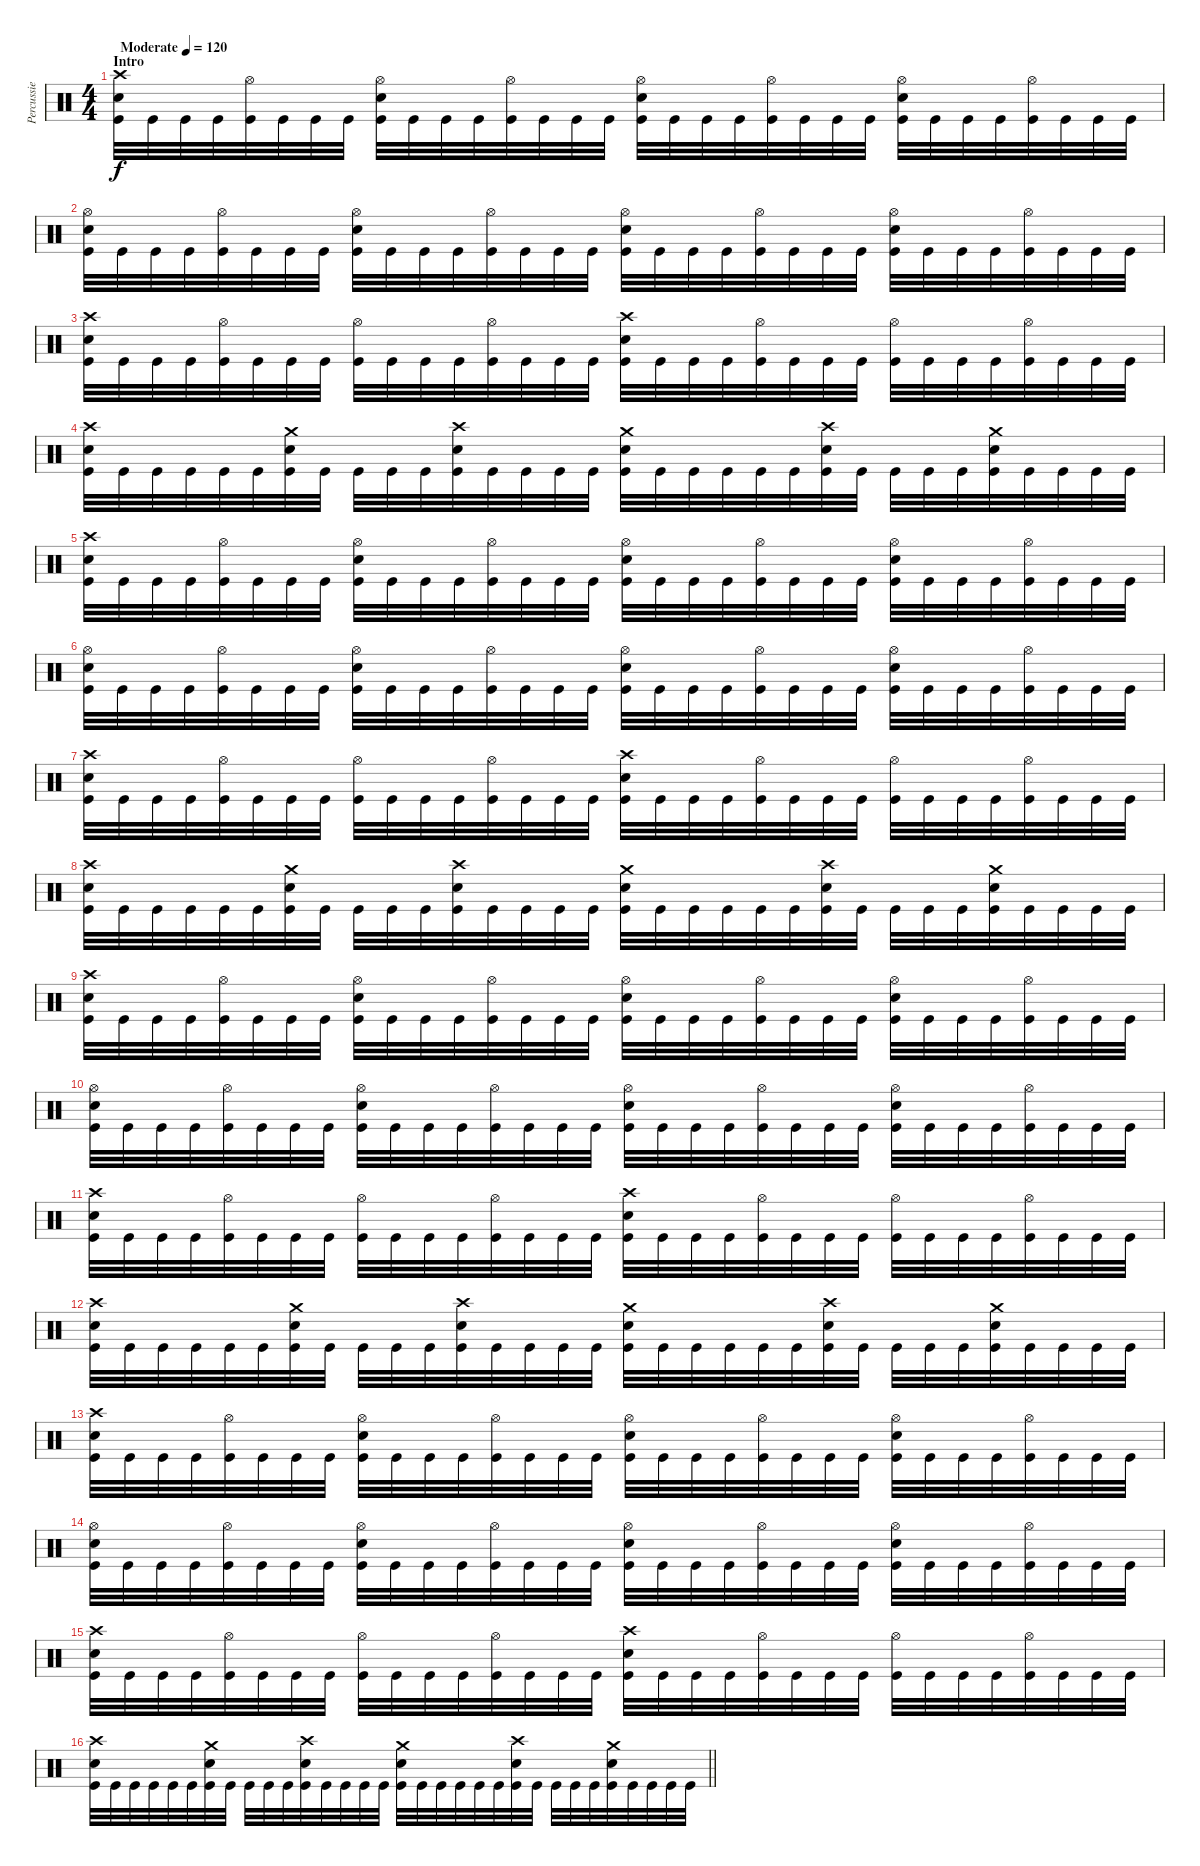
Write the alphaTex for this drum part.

\track ("Percussie" "Percussie") {instrument percussion}
\staff {score}
\articulation defaults
\ts (4 4)
\section ("" "Intro")
\tempo (120 "Moderate")
\clef neutral
\ks c
("Crash high (hit)" "Snare (hit) 2" "Kick (hit)").32{dy f} "Kick (hit)".32 "Kick (hit)".32 "Kick (hit)".32 ("Hi-Hat (open)" "Kick (hit)").32 "Kick (hit)".32 "Kick (hit)".32 "Kick (hit)".32 ("Hi-Hat (open)" "Snare (hit) 2" "Kick (hit)").32 "Kick (hit)".32 "Kick (hit)".32 "Kick (hit)".32 ("Hi-Hat (open)" "Kick (hit)").32 "Kick (hit)".32 "Kick (hit)".32 "Kick (hit)".32 ("Hi-Hat (open)" "Snare (hit) 2" "Kick (hit)").32 "Kick (hit)".32 "Kick (hit)".32 "Kick (hit)".32 ("Hi-Hat (open)" "Kick (hit)").32 "Kick (hit)".32 "Kick (hit)".32 "Kick (hit)".32 ("Hi-Hat (open)" "Snare (hit) 2" "Kick (hit)").32 "Kick (hit)".32 "Kick (hit)".32 "Kick (hit)".32 ("Hi-Hat (open)" "Kick (hit)").32 "Kick (hit)".32 "Kick (hit)".32 "Kick (hit)".32 |
("Hi-Hat (open)" "Snare (hit) 2" "Kick (hit)").32 "Kick (hit)".32 "Kick (hit)".32 "Kick (hit)".32 ("Hi-Hat (open)" "Kick (hit)").32 "Kick (hit)".32 "Kick (hit)".32 "Kick (hit)".32 ("Hi-Hat (open)" "Snare (hit) 2" "Kick (hit)").32 "Kick (hit)".32 "Kick (hit)".32 "Kick (hit)".32 ("Hi-Hat (open)" "Kick (hit)").32 "Kick (hit)".32 "Kick (hit)".32 "Kick (hit)".32 ("Hi-Hat (open)" "Snare (hit) 2" "Kick (hit)").32 "Kick (hit)".32 "Kick (hit)".32 "Kick (hit)".32 ("Hi-Hat (open)" "Kick (hit)").32 "Kick (hit)".32 "Kick (hit)".32 "Kick (hit)".32 ("Hi-Hat (open)" "Snare (hit) 2" "Kick (hit)").32 "Kick (hit)".32 "Kick (hit)".32 "Kick (hit)".32 ("Hi-Hat (open)" "Kick (hit)").32 "Kick (hit)".32 "Kick (hit)".32 "Kick (hit)".32 |
("Crash high (hit)" "Snare (hit) 2" "Kick (hit)").32 "Kick (hit)".32 "Kick (hit)".32 "Kick (hit)".32 ("Hi-Hat (open)" "Kick (hit)").32 "Kick (hit)".32 "Kick (hit)".32 "Kick (hit)".32 ("Hi-Hat (open)" "Kick (hit)").32 "Kick (hit)".32 "Kick (hit)".32 "Kick (hit)".32 ("Hi-Hat (open)" "Kick (hit)").32 "Kick (hit)".32 "Kick (hit)".32 "Kick (hit)".32 ("Crash high (hit)" "Snare (hit) 2" "Kick (hit)").32 "Kick (hit)".32 "Kick (hit)".32 "Kick (hit)".32 ("Hi-Hat (open)" "Kick (hit)").32 "Kick (hit)".32 "Kick (hit)".32 "Kick (hit)".32 ("Hi-Hat (open)" "Kick (hit)").32 "Kick (hit)".32 "Kick (hit)".32 "Kick (hit)".32 ("Hi-Hat (open)" "Kick (hit)").32 "Kick (hit)".32 "Kick (hit)".32 "Kick (hit)".32 |
("Crash high (hit)" "Snare (hit) 2" "Kick (hit)").32 "Kick (hit)".32 "Kick (hit)".32 "Kick (hit)".32 "Kick (hit)".32 "Kick (hit)".32 ("Crash medium (hit)" "Snare (hit) 2" "Kick (hit)").32 "Kick (hit)".32 "Kick (hit)".32 "Kick (hit)".32 "Kick (hit)".32 ("Crash high (hit)" "Snare (hit) 2" "Kick (hit)").32 "Kick (hit)".32 "Kick (hit)".32 "Kick (hit)".32 "Kick (hit)".32 ("Crash medium (hit)" "Snare (hit) 2" "Kick (hit)").32 "Kick (hit)".32 "Kick (hit)".32 "Kick (hit)".32 "Kick (hit)".32 "Kick (hit)".32 ("Crash high (hit)" "Snare (hit) 2" "Kick (hit)").32 "Kick (hit)".32 "Kick (hit)".32 "Kick (hit)".32 "Kick (hit)".32 ("Crash medium (hit)" "Snare (hit) 2" "Kick (hit)").32 "Kick (hit)".32 "Kick (hit)".32 "Kick (hit)".32 "Kick (hit)".32 |
("Crash high (hit)" "Snare (hit) 2" "Kick (hit)").32 "Kick (hit)".32 "Kick (hit)".32 "Kick (hit)".32 ("Hi-Hat (open)" "Kick (hit)").32 "Kick (hit)".32 "Kick (hit)".32 "Kick (hit)".32 ("Hi-Hat (open)" "Snare (hit) 2" "Kick (hit)").32 "Kick (hit)".32 "Kick (hit)".32 "Kick (hit)".32 ("Hi-Hat (open)" "Kick (hit)").32 "Kick (hit)".32 "Kick (hit)".32 "Kick (hit)".32 ("Hi-Hat (open)" "Snare (hit) 2" "Kick (hit)").32 "Kick (hit)".32 "Kick (hit)".32 "Kick (hit)".32 ("Hi-Hat (open)" "Kick (hit)").32 "Kick (hit)".32 "Kick (hit)".32 "Kick (hit)".32 ("Hi-Hat (open)" "Snare (hit) 2" "Kick (hit)").32 "Kick (hit)".32 "Kick (hit)".32 "Kick (hit)".32 ("Hi-Hat (open)" "Kick (hit)").32 "Kick (hit)".32 "Kick (hit)".32 "Kick (hit)".32 |
("Hi-Hat (open)" "Snare (hit) 2" "Kick (hit)").32 "Kick (hit)".32 "Kick (hit)".32 "Kick (hit)".32 ("Hi-Hat (open)" "Kick (hit)").32 "Kick (hit)".32 "Kick (hit)".32 "Kick (hit)".32 ("Hi-Hat (open)" "Snare (hit) 2" "Kick (hit)").32 "Kick (hit)".32 "Kick (hit)".32 "Kick (hit)".32 ("Hi-Hat (open)" "Kick (hit)").32 "Kick (hit)".32 "Kick (hit)".32 "Kick (hit)".32 ("Hi-Hat (open)" "Snare (hit) 2" "Kick (hit)").32 "Kick (hit)".32 "Kick (hit)".32 "Kick (hit)".32 ("Hi-Hat (open)" "Kick (hit)").32 "Kick (hit)".32 "Kick (hit)".32 "Kick (hit)".32 ("Hi-Hat (open)" "Snare (hit) 2" "Kick (hit)").32 "Kick (hit)".32 "Kick (hit)".32 "Kick (hit)".32 ("Hi-Hat (open)" "Kick (hit)").32 "Kick (hit)".32 "Kick (hit)".32 "Kick (hit)".32 |
("Crash high (hit)" "Snare (hit) 2" "Kick (hit)").32 "Kick (hit)".32 "Kick (hit)".32 "Kick (hit)".32 ("Hi-Hat (open)" "Kick (hit)").32 "Kick (hit)".32 "Kick (hit)".32 "Kick (hit)".32 ("Hi-Hat (open)" "Kick (hit)").32 "Kick (hit)".32 "Kick (hit)".32 "Kick (hit)".32 ("Hi-Hat (open)" "Kick (hit)").32 "Kick (hit)".32 "Kick (hit)".32 "Kick (hit)".32 ("Crash high (hit)" "Snare (hit) 2" "Kick (hit)").32 "Kick (hit)".32 "Kick (hit)".32 "Kick (hit)".32 ("Hi-Hat (open)" "Kick (hit)").32 "Kick (hit)".32 "Kick (hit)".32 "Kick (hit)".32 ("Hi-Hat (open)" "Kick (hit)").32 "Kick (hit)".32 "Kick (hit)".32 "Kick (hit)".32 ("Hi-Hat (open)" "Kick (hit)").32 "Kick (hit)".32 "Kick (hit)".32 "Kick (hit)".32 |
("Crash high (hit)" "Snare (hit) 2" "Kick (hit)").32 "Kick (hit)".32 "Kick (hit)".32 "Kick (hit)".32 "Kick (hit)".32 "Kick (hit)".32 ("Crash medium (hit)" "Snare (hit) 2" "Kick (hit)").32 "Kick (hit)".32 "Kick (hit)".32 "Kick (hit)".32 "Kick (hit)".32 ("Crash high (hit)" "Snare (hit) 2" "Kick (hit)").32 "Kick (hit)".32 "Kick (hit)".32 "Kick (hit)".32 "Kick (hit)".32 ("Crash medium (hit)" "Snare (hit) 2" "Kick (hit)").32 "Kick (hit)".32 "Kick (hit)".32 "Kick (hit)".32 "Kick (hit)".32 "Kick (hit)".32 ("Crash high (hit)" "Snare (hit) 2" "Kick (hit)").32 "Kick (hit)".32 "Kick (hit)".32 "Kick (hit)".32 "Kick (hit)".32 ("Crash medium (hit)" "Snare (hit) 2" "Kick (hit)").32 "Kick (hit)".32 "Kick (hit)".32 "Kick (hit)".32 "Kick (hit)".32 |
("Crash high (hit)" "Snare (hit) 2" "Kick (hit)").32 "Kick (hit)".32 "Kick (hit)".32 "Kick (hit)".32 ("Hi-Hat (open)" "Kick (hit)").32 "Kick (hit)".32 "Kick (hit)".32 "Kick (hit)".32 ("Hi-Hat (open)" "Snare (hit) 2" "Kick (hit)").32 "Kick (hit)".32 "Kick (hit)".32 "Kick (hit)".32 ("Hi-Hat (open)" "Kick (hit)").32 "Kick (hit)".32 "Kick (hit)".32 "Kick (hit)".32 ("Hi-Hat (open)" "Snare (hit) 2" "Kick (hit)").32 "Kick (hit)".32 "Kick (hit)".32 "Kick (hit)".32 ("Hi-Hat (open)" "Kick (hit)").32 "Kick (hit)".32 "Kick (hit)".32 "Kick (hit)".32 ("Hi-Hat (open)" "Snare (hit) 2" "Kick (hit)").32 "Kick (hit)".32 "Kick (hit)".32 "Kick (hit)".32 ("Hi-Hat (open)" "Kick (hit)").32 "Kick (hit)".32 "Kick (hit)".32 "Kick (hit)".32 |
("Hi-Hat (open)" "Snare (hit) 2" "Kick (hit)").32 "Kick (hit)".32 "Kick (hit)".32 "Kick (hit)".32 ("Hi-Hat (open)" "Kick (hit)").32 "Kick (hit)".32 "Kick (hit)".32 "Kick (hit)".32 ("Hi-Hat (open)" "Snare (hit) 2" "Kick (hit)").32 "Kick (hit)".32 "Kick (hit)".32 "Kick (hit)".32 ("Hi-Hat (open)" "Kick (hit)").32 "Kick (hit)".32 "Kick (hit)".32 "Kick (hit)".32 ("Hi-Hat (open)" "Snare (hit) 2" "Kick (hit)").32 "Kick (hit)".32 "Kick (hit)".32 "Kick (hit)".32 ("Hi-Hat (open)" "Kick (hit)").32 "Kick (hit)".32 "Kick (hit)".32 "Kick (hit)".32 ("Hi-Hat (open)" "Snare (hit) 2" "Kick (hit)").32 "Kick (hit)".32 "Kick (hit)".32 "Kick (hit)".32 ("Hi-Hat (open)" "Kick (hit)").32 "Kick (hit)".32 "Kick (hit)".32 "Kick (hit)".32 |
("Crash high (hit)" "Snare (hit) 2" "Kick (hit)").32 "Kick (hit)".32 "Kick (hit)".32 "Kick (hit)".32 ("Hi-Hat (open)" "Kick (hit)").32 "Kick (hit)".32 "Kick (hit)".32 "Kick (hit)".32 ("Hi-Hat (open)" "Kick (hit)").32 "Kick (hit)".32 "Kick (hit)".32 "Kick (hit)".32 ("Hi-Hat (open)" "Kick (hit)").32 "Kick (hit)".32 "Kick (hit)".32 "Kick (hit)".32 ("Crash high (hit)" "Snare (hit) 2" "Kick (hit)").32 "Kick (hit)".32 "Kick (hit)".32 "Kick (hit)".32 ("Hi-Hat (open)" "Kick (hit)").32 "Kick (hit)".32 "Kick (hit)".32 "Kick (hit)".32 ("Hi-Hat (open)" "Kick (hit)").32 "Kick (hit)".32 "Kick (hit)".32 "Kick (hit)".32 ("Hi-Hat (open)" "Kick (hit)").32 "Kick (hit)".32 "Kick (hit)".32 "Kick (hit)".32 |
("Crash high (hit)" "Snare (hit) 2" "Kick (hit)").32 "Kick (hit)".32 "Kick (hit)".32 "Kick (hit)".32 "Kick (hit)".32 "Kick (hit)".32 ("Crash medium (hit)" "Snare (hit) 2" "Kick (hit)").32 "Kick (hit)".32 "Kick (hit)".32 "Kick (hit)".32 "Kick (hit)".32 ("Crash high (hit)" "Snare (hit) 2" "Kick (hit)").32 "Kick (hit)".32 "Kick (hit)".32 "Kick (hit)".32 "Kick (hit)".32 ("Crash medium (hit)" "Snare (hit) 2" "Kick (hit)").32 "Kick (hit)".32 "Kick (hit)".32 "Kick (hit)".32 "Kick (hit)".32 "Kick (hit)".32 ("Crash high (hit)" "Snare (hit) 2" "Kick (hit)").32 "Kick (hit)".32 "Kick (hit)".32 "Kick (hit)".32 "Kick (hit)".32 ("Crash medium (hit)" "Snare (hit) 2" "Kick (hit)").32 "Kick (hit)".32 "Kick (hit)".32 "Kick (hit)".32 "Kick (hit)".32 |
("Crash high (hit)" "Snare (hit) 2" "Kick (hit)").32 "Kick (hit)".32 "Kick (hit)".32 "Kick (hit)".32 ("Hi-Hat (open)" "Kick (hit)").32 "Kick (hit)".32 "Kick (hit)".32 "Kick (hit)".32 ("Hi-Hat (open)" "Snare (hit) 2" "Kick (hit)").32 "Kick (hit)".32 "Kick (hit)".32 "Kick (hit)".32 ("Hi-Hat (open)" "Kick (hit)").32 "Kick (hit)".32 "Kick (hit)".32 "Kick (hit)".32 ("Hi-Hat (open)" "Snare (hit) 2" "Kick (hit)").32 "Kick (hit)".32 "Kick (hit)".32 "Kick (hit)".32 ("Hi-Hat (open)" "Kick (hit)").32 "Kick (hit)".32 "Kick (hit)".32 "Kick (hit)".32 ("Hi-Hat (open)" "Snare (hit) 2" "Kick (hit)").32 "Kick (hit)".32 "Kick (hit)".32 "Kick (hit)".32 ("Hi-Hat (open)" "Kick (hit)").32 "Kick (hit)".32 "Kick (hit)".32 "Kick (hit)".32 |
("Hi-Hat (open)" "Snare (hit) 2" "Kick (hit)").32 "Kick (hit)".32 "Kick (hit)".32 "Kick (hit)".32 ("Hi-Hat (open)" "Kick (hit)").32 "Kick (hit)".32 "Kick (hit)".32 "Kick (hit)".32 ("Hi-Hat (open)" "Snare (hit) 2" "Kick (hit)").32 "Kick (hit)".32 "Kick (hit)".32 "Kick (hit)".32 ("Hi-Hat (open)" "Kick (hit)").32 "Kick (hit)".32 "Kick (hit)".32 "Kick (hit)".32 ("Hi-Hat (open)" "Snare (hit) 2" "Kick (hit)").32 "Kick (hit)".32 "Kick (hit)".32 "Kick (hit)".32 ("Hi-Hat (open)" "Kick (hit)").32 "Kick (hit)".32 "Kick (hit)".32 "Kick (hit)".32 ("Hi-Hat (open)" "Snare (hit) 2" "Kick (hit)").32 "Kick (hit)".32 "Kick (hit)".32 "Kick (hit)".32 ("Hi-Hat (open)" "Kick (hit)").32 "Kick (hit)".32 "Kick (hit)".32 "Kick (hit)".32 |
("Crash high (hit)" "Snare (hit) 2" "Kick (hit)").32 "Kick (hit)".32 "Kick (hit)".32 "Kick (hit)".32 ("Hi-Hat (open)" "Kick (hit)").32 "Kick (hit)".32 "Kick (hit)".32 "Kick (hit)".32 ("Hi-Hat (open)" "Kick (hit)").32 "Kick (hit)".32 "Kick (hit)".32 "Kick (hit)".32 ("Hi-Hat (open)" "Kick (hit)").32 "Kick (hit)".32 "Kick (hit)".32 "Kick (hit)".32 ("Crash high (hit)" "Snare (hit) 2" "Kick (hit)").32 "Kick (hit)".32 "Kick (hit)".32 "Kick (hit)".32 ("Hi-Hat (open)" "Kick (hit)").32 "Kick (hit)".32 "Kick (hit)".32 "Kick (hit)".32 ("Hi-Hat (open)" "Kick (hit)").32 "Kick (hit)".32 "Kick (hit)".32 "Kick (hit)".32 ("Hi-Hat (open)" "Kick (hit)").32 "Kick (hit)".32 "Kick (hit)".32 "Kick (hit)".32 |
\barLineRight lightlight
("Crash high (hit)" "Snare (hit) 2" "Kick (hit)").32 "Kick (hit)".32 "Kick (hit)".32 "Kick (hit)".32 "Kick (hit)".32 "Kick (hit)".32 ("Crash medium (hit)" "Snare (hit) 2" "Kick (hit)").32 "Kick (hit)".32 "Kick (hit)".32 "Kick (hit)".32 "Kick (hit)".32 ("Crash high (hit)" "Snare (hit) 2" "Kick (hit)").32 "Kick (hit)".32 "Kick (hit)".32 "Kick (hit)".32 "Kick (hit)".32 ("Crash medium (hit)" "Snare (hit) 2" "Kick (hit)").32 "Kick (hit)".32 "Kick (hit)".32 "Kick (hit)".32 "Kick (hit)".32 "Kick (hit)".32 ("Crash high (hit)" "Snare (hit) 2" "Kick (hit)").32 "Kick (hit)".32 "Kick (hit)".32 "Kick (hit)".32 "Kick (hit)".32 ("Crash medium (hit)" "Snare (hit) 2" "Kick (hit)").32 "Kick (hit)".32 "Kick (hit)".32 "Kick (hit)".32 "Kick (hit)".32
